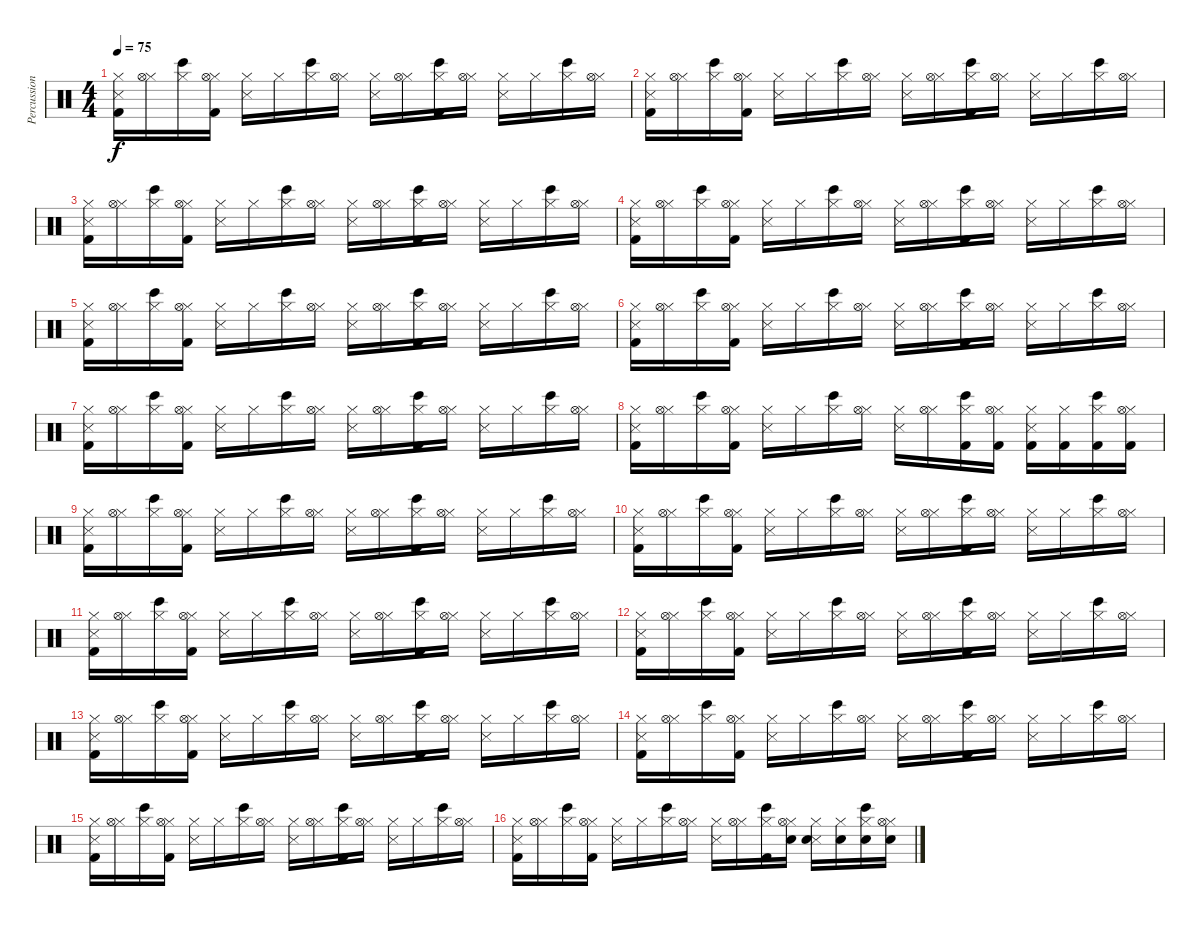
\track ("Percussion" "Percussion") {instrument percussion}
\staff {score}
\articulation defaults
\ts (4 4)
\tempo 75
\clef neutral
\ks c
("Hi-Hat (closed)" "Metronome (hit)" "Kick (hit) 2").16{dy f} ("Hi-Hat (closed)" "Hi-Hat (open)").16 ("Hi-Hat (closed)" "Bongo High (hit)").16 ("Hi-Hat (closed)" "Hi-Hat (open)" "Kick (hit) 2").16 ("Hi-Hat (closed)" "Metronome (hit)").16 "Hi-Hat (closed)".16 ("Hi-Hat (closed)" "Bongo High (hit)").16 ("Hi-Hat (closed)" "Hi-Hat (open)").16 ("Hi-Hat (closed)" "Metronome (hit)").16 ("Hi-Hat (closed)" "Hi-Hat (open)").16 ("Hi-Hat (closed)" "Bongo High (hit)" "Kick (hit) 2").16 ("Hi-Hat (closed)" "Hi-Hat (open)").16 ("Hi-Hat (closed)" "Metronome (hit)").16 "Hi-Hat (closed)".16 ("Hi-Hat (closed)" "Bongo High (hit)").16 ("Hi-Hat (closed)" "Hi-Hat (open)").16 |
("Hi-Hat (closed)" "Metronome (hit)" "Kick (hit) 2").16 ("Hi-Hat (closed)" "Hi-Hat (open)").16 ("Hi-Hat (closed)" "Bongo High (hit)").16 ("Hi-Hat (closed)" "Hi-Hat (open)" "Kick (hit) 2").16 ("Hi-Hat (closed)" "Metronome (hit)").16 "Hi-Hat (closed)".16 ("Hi-Hat (closed)" "Bongo High (hit)").16 ("Hi-Hat (closed)" "Hi-Hat (open)").16 ("Hi-Hat (closed)" "Metronome (hit)").16 ("Hi-Hat (closed)" "Hi-Hat (open)").16 ("Hi-Hat (closed)" "Bongo High (hit)" "Kick (hit) 2").16 ("Hi-Hat (closed)" "Hi-Hat (open)").16 ("Hi-Hat (closed)" "Metronome (hit)").16 "Hi-Hat (closed)".16 ("Hi-Hat (closed)" "Bongo High (hit)").16 ("Hi-Hat (closed)" "Hi-Hat (open)").16 |
("Hi-Hat (closed)" "Metronome (hit)" "Kick (hit) 2").16 ("Hi-Hat (closed)" "Hi-Hat (open)").16 ("Hi-Hat (closed)" "Bongo High (hit)").16 ("Hi-Hat (closed)" "Hi-Hat (open)" "Kick (hit) 2").16 ("Hi-Hat (closed)" "Metronome (hit)").16 "Hi-Hat (closed)".16 ("Hi-Hat (closed)" "Bongo High (hit)").16 ("Hi-Hat (closed)" "Hi-Hat (open)").16 ("Hi-Hat (closed)" "Metronome (hit)").16 ("Hi-Hat (closed)" "Hi-Hat (open)").16 ("Hi-Hat (closed)" "Bongo High (hit)" "Kick (hit) 2").16 ("Hi-Hat (closed)" "Hi-Hat (open)").16 ("Hi-Hat (closed)" "Metronome (hit)").16 "Hi-Hat (closed)".16 ("Hi-Hat (closed)" "Bongo High (hit)").16 ("Hi-Hat (closed)" "Hi-Hat (open)").16 |
("Hi-Hat (closed)" "Metronome (hit)" "Kick (hit) 2").16 ("Hi-Hat (closed)" "Hi-Hat (open)").16 ("Hi-Hat (closed)" "Bongo High (hit)").16 ("Hi-Hat (closed)" "Hi-Hat (open)" "Kick (hit) 2").16 ("Hi-Hat (closed)" "Metronome (hit)").16 "Hi-Hat (closed)".16 ("Hi-Hat (closed)" "Bongo High (hit)").16 ("Hi-Hat (closed)" "Hi-Hat (open)").16 ("Hi-Hat (closed)" "Metronome (hit)").16 ("Hi-Hat (closed)" "Hi-Hat (open)").16 ("Hi-Hat (closed)" "Bongo High (hit)" "Kick (hit) 2").16 ("Hi-Hat (closed)" "Hi-Hat (open)").16 ("Hi-Hat (closed)" "Metronome (hit)").16 "Hi-Hat (closed)".16 ("Hi-Hat (closed)" "Bongo High (hit)").16 ("Hi-Hat (closed)" "Hi-Hat (open)").16 |
("Hi-Hat (closed)" "Metronome (hit)" "Kick (hit) 2").16 ("Hi-Hat (closed)" "Hi-Hat (open)").16 ("Hi-Hat (closed)" "Bongo High (hit)").16 ("Hi-Hat (closed)" "Hi-Hat (open)" "Kick (hit) 2").16 ("Hi-Hat (closed)" "Metronome (hit)").16 "Hi-Hat (closed)".16 ("Hi-Hat (closed)" "Bongo High (hit)").16 ("Hi-Hat (closed)" "Hi-Hat (open)").16 ("Hi-Hat (closed)" "Metronome (hit)").16 ("Hi-Hat (closed)" "Hi-Hat (open)").16 ("Hi-Hat (closed)" "Bongo High (hit)" "Kick (hit) 2").16 ("Hi-Hat (closed)" "Hi-Hat (open)").16 ("Hi-Hat (closed)" "Metronome (hit)").16 "Hi-Hat (closed)".16 ("Hi-Hat (closed)" "Bongo High (hit)").16 ("Hi-Hat (closed)" "Hi-Hat (open)").16 |
("Hi-Hat (closed)" "Metronome (hit)" "Kick (hit) 2").16 ("Hi-Hat (closed)" "Hi-Hat (open)").16 ("Hi-Hat (closed)" "Bongo High (hit)").16 ("Hi-Hat (closed)" "Hi-Hat (open)" "Kick (hit) 2").16 ("Hi-Hat (closed)" "Metronome (hit)").16 "Hi-Hat (closed)".16 ("Hi-Hat (closed)" "Bongo High (hit)").16 ("Hi-Hat (closed)" "Hi-Hat (open)").16 ("Hi-Hat (closed)" "Metronome (hit)").16 ("Hi-Hat (closed)" "Hi-Hat (open)").16 ("Hi-Hat (closed)" "Bongo High (hit)" "Kick (hit) 2").16 ("Hi-Hat (closed)" "Hi-Hat (open)").16 ("Hi-Hat (closed)" "Metronome (hit)").16 "Hi-Hat (closed)".16 ("Hi-Hat (closed)" "Bongo High (hit)").16 ("Hi-Hat (closed)" "Hi-Hat (open)").16 |
("Hi-Hat (closed)" "Metronome (hit)" "Kick (hit) 2").16 ("Hi-Hat (closed)" "Hi-Hat (open)").16 ("Hi-Hat (closed)" "Bongo High (hit)").16 ("Hi-Hat (closed)" "Hi-Hat (open)" "Kick (hit) 2").16 ("Hi-Hat (closed)" "Metronome (hit)").16 "Hi-Hat (closed)".16 ("Hi-Hat (closed)" "Bongo High (hit)").16 ("Hi-Hat (closed)" "Hi-Hat (open)").16 ("Hi-Hat (closed)" "Metronome (hit)").16 ("Hi-Hat (closed)" "Hi-Hat (open)").16 ("Hi-Hat (closed)" "Bongo High (hit)" "Kick (hit) 2").16 ("Hi-Hat (closed)" "Hi-Hat (open)").16 ("Hi-Hat (closed)" "Metronome (hit)").16 "Hi-Hat (closed)".16 ("Hi-Hat (closed)" "Bongo High (hit)").16 ("Hi-Hat (closed)" "Hi-Hat (open)").16 |
("Hi-Hat (closed)" "Metronome (hit)" "Kick (hit) 2").16 ("Hi-Hat (closed)" "Hi-Hat (open)").16 ("Hi-Hat (closed)" "Bongo High (hit)").16 ("Hi-Hat (closed)" "Hi-Hat (open)" "Kick (hit) 2").16 ("Hi-Hat (closed)" "Metronome (hit)").16 "Hi-Hat (closed)".16 ("Hi-Hat (closed)" "Bongo High (hit)").16 ("Hi-Hat (closed)" "Hi-Hat (open)").16 ("Hi-Hat (closed)" "Metronome (hit)").16 ("Hi-Hat (closed)" "Hi-Hat (open)").16 ("Hi-Hat (closed)" "Bongo High (hit)" "Kick (hit) 2").16 ("Hi-Hat (closed)" "Hi-Hat (open)" "Kick (hit) 2").16 ("Hi-Hat (closed)" "Metronome (hit)" "Kick (hit) 2").16 ("Hi-Hat (closed)" "Kick (hit) 2").16 ("Hi-Hat (closed)" "Bongo High (hit)" "Kick (hit) 2").16 ("Hi-Hat (closed)" "Hi-Hat (open)" "Kick (hit) 2").16 |
("Hi-Hat (closed)" "Metronome (hit)" "Kick (hit) 2").16 ("Hi-Hat (closed)" "Hi-Hat (open)").16 ("Hi-Hat (closed)" "Bongo High (hit)").16 ("Hi-Hat (closed)" "Hi-Hat (open)" "Kick (hit) 2").16 ("Hi-Hat (closed)" "Metronome (hit)").16 "Hi-Hat (closed)".16 ("Hi-Hat (closed)" "Bongo High (hit)").16 ("Hi-Hat (closed)" "Hi-Hat (open)").16 ("Hi-Hat (closed)" "Metronome (hit)").16 ("Hi-Hat (closed)" "Hi-Hat (open)").16 ("Hi-Hat (closed)" "Bongo High (hit)" "Kick (hit) 2").16 ("Hi-Hat (closed)" "Hi-Hat (open)").16 ("Hi-Hat (closed)" "Metronome (hit)").16 "Hi-Hat (closed)".16 ("Hi-Hat (closed)" "Bongo High (hit)").16 ("Hi-Hat (closed)" "Hi-Hat (open)").16 |
("Hi-Hat (closed)" "Metronome (hit)" "Kick (hit) 2").16 ("Hi-Hat (closed)" "Hi-Hat (open)").16 ("Hi-Hat (closed)" "Bongo High (hit)").16 ("Hi-Hat (closed)" "Hi-Hat (open)" "Kick (hit) 2").16 ("Hi-Hat (closed)" "Metronome (hit)").16 "Hi-Hat (closed)".16 ("Hi-Hat (closed)" "Bongo High (hit)").16 ("Hi-Hat (closed)" "Hi-Hat (open)").16 ("Hi-Hat (closed)" "Metronome (hit)").16 ("Hi-Hat (closed)" "Hi-Hat (open)").16 ("Hi-Hat (closed)" "Bongo High (hit)" "Kick (hit) 2").16 ("Hi-Hat (closed)" "Hi-Hat (open)").16 ("Hi-Hat (closed)" "Metronome (hit)").16 "Hi-Hat (closed)".16 ("Hi-Hat (closed)" "Bongo High (hit)").16 ("Hi-Hat (closed)" "Hi-Hat (open)").16 |
("Hi-Hat (closed)" "Metronome (hit)" "Kick (hit) 2").16 ("Hi-Hat (closed)" "Hi-Hat (open)").16 ("Hi-Hat (closed)" "Bongo High (hit)").16 ("Hi-Hat (closed)" "Hi-Hat (open)" "Kick (hit) 2").16 ("Hi-Hat (closed)" "Metronome (hit)").16 "Hi-Hat (closed)".16 ("Hi-Hat (closed)" "Bongo High (hit)").16 ("Hi-Hat (closed)" "Hi-Hat (open)").16 ("Hi-Hat (closed)" "Metronome (hit)").16 ("Hi-Hat (closed)" "Hi-Hat (open)").16 ("Hi-Hat (closed)" "Bongo High (hit)" "Kick (hit) 2").16 ("Hi-Hat (closed)" "Hi-Hat (open)").16 ("Hi-Hat (closed)" "Metronome (hit)").16 "Hi-Hat (closed)".16 ("Hi-Hat (closed)" "Bongo High (hit)").16 ("Hi-Hat (closed)" "Hi-Hat (open)").16 |
("Hi-Hat (closed)" "Metronome (hit)" "Kick (hit) 2").16 ("Hi-Hat (closed)" "Hi-Hat (open)").16 ("Hi-Hat (closed)" "Bongo High (hit)").16 ("Hi-Hat (closed)" "Hi-Hat (open)" "Kick (hit) 2").16 ("Hi-Hat (closed)" "Metronome (hit)").16 "Hi-Hat (closed)".16 ("Hi-Hat (closed)" "Bongo High (hit)").16 ("Hi-Hat (closed)" "Hi-Hat (open)").16 ("Hi-Hat (closed)" "Metronome (hit)").16 ("Hi-Hat (closed)" "Hi-Hat (open)").16 ("Hi-Hat (closed)" "Bongo High (hit)" "Kick (hit) 2").16 ("Hi-Hat (closed)" "Hi-Hat (open)").16 ("Hi-Hat (closed)" "Metronome (hit)").16 "Hi-Hat (closed)".16 ("Hi-Hat (closed)" "Bongo High (hit)").16 ("Hi-Hat (closed)" "Hi-Hat (open)").16 |
("Hi-Hat (closed)" "Metronome (hit)" "Kick (hit) 2").16 ("Hi-Hat (closed)" "Hi-Hat (open)").16 ("Hi-Hat (closed)" "Bongo High (hit)").16 ("Hi-Hat (closed)" "Hi-Hat (open)" "Kick (hit) 2").16 ("Hi-Hat (closed)" "Metronome (hit)").16 "Hi-Hat (closed)".16 ("Hi-Hat (closed)" "Bongo High (hit)").16 ("Hi-Hat (closed)" "Hi-Hat (open)").16 ("Hi-Hat (closed)" "Metronome (hit)").16 ("Hi-Hat (closed)" "Hi-Hat (open)").16 ("Hi-Hat (closed)" "Bongo High (hit)" "Kick (hit) 2").16 ("Hi-Hat (closed)" "Hi-Hat (open)").16 ("Hi-Hat (closed)" "Metronome (hit)").16 "Hi-Hat (closed)".16 ("Hi-Hat (closed)" "Bongo High (hit)").16 ("Hi-Hat (closed)" "Hi-Hat (open)").16 |
("Hi-Hat (closed)" "Metronome (hit)" "Kick (hit) 2").16 ("Hi-Hat (closed)" "Hi-Hat (open)").16 ("Hi-Hat (closed)" "Bongo High (hit)").16 ("Hi-Hat (closed)" "Hi-Hat (open)" "Kick (hit) 2").16 ("Hi-Hat (closed)" "Metronome (hit)").16 "Hi-Hat (closed)".16 ("Hi-Hat (closed)" "Bongo High (hit)").16 ("Hi-Hat (closed)" "Hi-Hat (open)").16 ("Hi-Hat (closed)" "Metronome (hit)").16 ("Hi-Hat (closed)" "Hi-Hat (open)").16 ("Hi-Hat (closed)" "Bongo High (hit)" "Kick (hit) 2").16 ("Hi-Hat (closed)" "Hi-Hat (open)").16 ("Hi-Hat (closed)" "Metronome (hit)").16 "Hi-Hat (closed)".16 ("Hi-Hat (closed)" "Bongo High (hit)").16 ("Hi-Hat (closed)" "Hi-Hat (open)").16 |
("Hi-Hat (closed)" "Metronome (hit)" "Kick (hit) 2").16 ("Hi-Hat (closed)" "Hi-Hat (open)").16 ("Hi-Hat (closed)" "Bongo High (hit)").16 ("Hi-Hat (closed)" "Hi-Hat (open)" "Kick (hit) 2").16 ("Hi-Hat (closed)" "Metronome (hit)").16 "Hi-Hat (closed)".16 ("Hi-Hat (closed)" "Bongo High (hit)").16 ("Hi-Hat (closed)" "Hi-Hat (open)").16 ("Hi-Hat (closed)" "Metronome (hit)").16 ("Hi-Hat (closed)" "Hi-Hat (open)").16 ("Hi-Hat (closed)" "Bongo High (hit)" "Kick (hit) 2").16 ("Hi-Hat (closed)" "Hi-Hat (open)").16 ("Hi-Hat (closed)" "Metronome (hit)").16 "Hi-Hat (closed)".16 ("Hi-Hat (closed)" "Bongo High (hit)").16 ("Hi-Hat (closed)" "Hi-Hat (open)").16 |
("Hi-Hat (closed)" "Metronome (hit)" "Kick (hit) 2").16 ("Hi-Hat (closed)" "Hi-Hat (open)").16 ("Hi-Hat (closed)" "Bongo High (hit)").16 ("Hi-Hat (closed)" "Hi-Hat (open)" "Kick (hit) 2").16 ("Hi-Hat (closed)" "Metronome (hit)").16 "Hi-Hat (closed)".16 ("Hi-Hat (closed)" "Bongo High (hit)").16 ("Hi-Hat (closed)" "Hi-Hat (open)").16 ("Hi-Hat (closed)" "Metronome (hit)").16 ("Hi-Hat (closed)" "Hi-Hat (open)").16 ("Hi-Hat (closed)" "Bongo High (hit)" "Kick (hit) 2").16 ("Hi-Hat (closed)" "Hi-Hat (open)" "Electric Snare (hit)").16 ("Hi-Hat (closed)" "Metronome (hit)" "Electric Snare (hit)").16 ("Hi-Hat (closed)" "Electric Snare (hit)").16 ("Hi-Hat (closed)" "Bongo High (hit)" "Electric Snare (hit)").16 ("Hi-Hat (closed)" "Hi-Hat (open)" "Electric Snare (hit)").16
